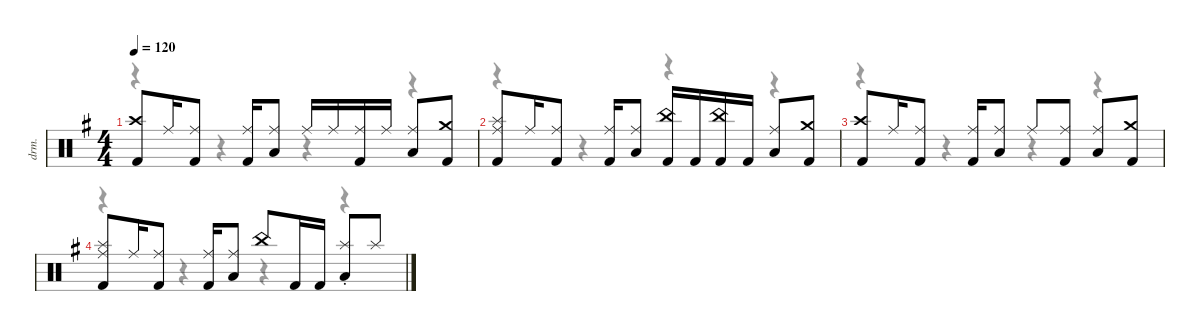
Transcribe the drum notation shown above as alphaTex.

\defaultSystemsLayout 4
\hideDynamics
\bracketExtendMode nobrackets
\track ("Drums" "drm.") {instrument percussion}
\staff {score}
\articulation defaults
\voice
\ts (4 4)
\tempo 120
\clef neutral
\ks g
("Kick (hit) 2"{acc forcenatural} "Crash high (hit)"{acc forcenatural}).8{dy mf} "Ride (middle)"{acc forcenatural}.16 ("Kick (hit) 2"{acc forcenatural} "Ride (middle)"{acc forcenatural}).8 ("Kick (hit) 2"{acc forcenatural} "Ride (middle)"{acc forcenatural}).16 ("Low Floor Tom (hit)"{acc forcenatural} "Ride (middle)"{acc forcenatural}).8 "Ride (middle)"{acc forcenatural}.16 "Ride (middle)"{acc forcenatural}.16 ("Kick (hit) 2"{acc forcenatural} "Ride (middle)"{acc forcenatural}).16 "Ride (middle)"{acc forcenatural}.16 ("Low Floor Tom (hit)"{acc forcenatural} "Ride (middle)"{acc forcenatural}).8 ("Kick (hit) 2"{acc forcenatural} "Crash medium (hit)"{acc forcenatural}).8 |
("Kick (hit) 2"{acc forcenatural} "Ride (middle)"{acc forcenatural} "Splash (hit)"{acc forcenatural}).8 "Ride (middle)"{acc forcenatural}.16 ("Kick (hit) 2"{acc forcenatural} "Ride (middle)"{acc forcenatural}).8 ("Kick (hit) 2"{acc forcenatural} "Ride (middle)"{acc forcenatural}).16 ("Low Floor Tom (hit)"{acc forcenatural} "Ride (middle)"{acc forcenatural}).8 ("Kick (hit) 2"{acc forcenatural} "China (choke)"{acc forcenatural}).16 "Kick (hit) 2"{acc forcenatural}.16 ("Kick (hit) 2"{acc forcenatural} "China (choke)"{acc forcenatural}).16 "Kick (hit) 2"{acc forcenatural}.16 ("Low Floor Tom (hit)"{acc forcenatural} "Ride (middle)"{acc forcenatural}).8 ("Kick (hit) 2"{acc forcenatural} "Crash medium (hit)"{acc forcenatural}).8 |
("Kick (hit) 2"{acc forcenatural} "Crash high (hit)"{acc forcenatural}).8 "Ride (middle)"{acc forcenatural}.16 ("Kick (hit) 2"{acc forcenatural} "Ride (middle)"{acc forcenatural}).8 ("Kick (hit) 2"{acc forcenatural} "Ride (middle)"{acc forcenatural}).16 ("Low Floor Tom (hit)"{acc forcenatural} "Ride (middle)"{acc forcenatural}).8 "Ride (middle)"{acc forcenatural}.8 ("Kick (hit) 2"{acc forcenatural} "Ride (middle)"{acc forcenatural}).8 ("Low Floor Tom (hit)"{acc forcenatural} "Ride (middle)"{acc forcenatural}).8 ("Kick (hit) 2"{acc forcenatural} "Crash medium (hit)"{acc forcenatural}).8 |
("Kick (hit) 2"{acc forcenatural} "Splash (hit)"{acc forcenatural} "Ride (middle)"{acc forcenatural}).8 "Ride (middle)"{acc forcenatural}.16 ("Kick (hit) 2"{acc forcenatural} "Ride (middle)"{acc forcenatural}).8 ("Kick (hit) 2"{acc forcenatural} "Ride (middle)"{acc forcenatural}).16 ("Low Floor Tom (hit)"{acc forcenatural} "Ride (middle)"{acc forcenatural}).8 "China (choke)"{acc forcenatural}.8 "Kick (hit) 2"{acc forcenatural}.16 "Kick (hit) 2"{acc forcenatural}.16 ("Low Floor Tom (hit)"{acc forcenatural} "Splash (choke)"{acc forcenatural}).8 "Splash (hit)"{acc forcenatural}.8
\voice
\clef neutral
\ottava regular
\simile none
\ks g
r.4{dy mf} r.4 r.4 r.4 |
r.4 r.4 r.4 r.4 |
r.4 r.4 r.4 r.4 |
r.4 r.4 r.4 r.4
